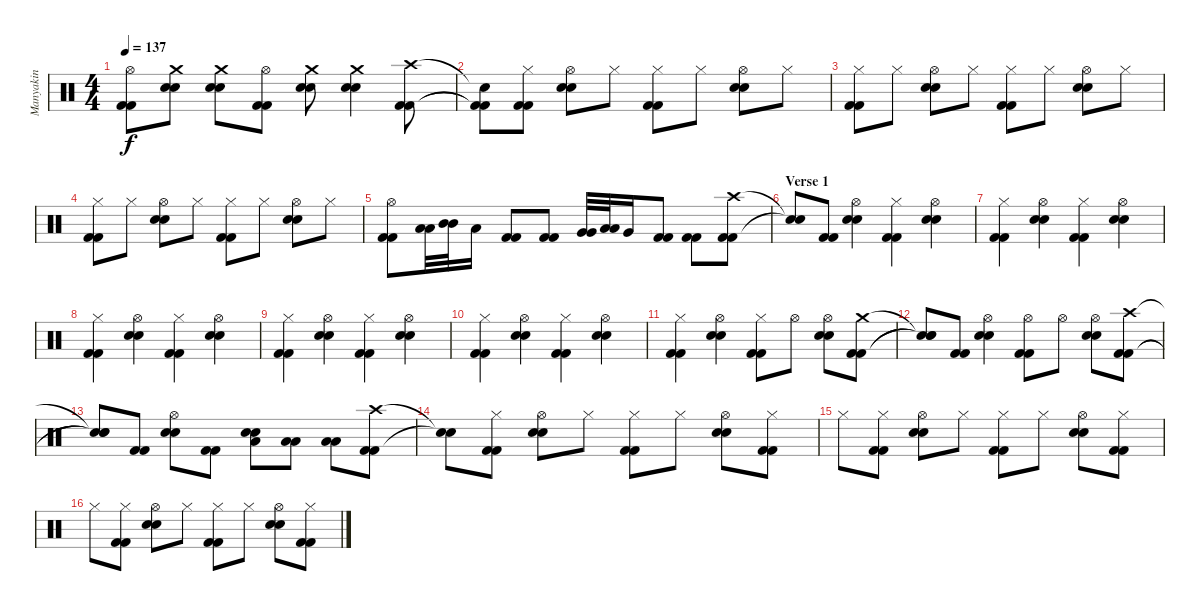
\track ("Manyakin" "Manyakin") {instrument percussion}
\staff {score}
\articulation defaults
\ts (4 4)
\tempo 137
\clef neutral
\ks c
("Hi-Hat (open)" "Kick (hit) 2" "Kick (hit) 2").8{dy f} ("Crash medium (hit)" "Electric Snare (hit)" "Electric Snare (hit)").8 ("Crash medium (hit)" "Electric Snare (hit)" "Electric Snare (hit)").8 ("Hi-Hat (open)" "Kick (hit) 2" "Kick (hit) 2").8 ("Crash medium (hit)" "Electric Snare (hit)" "Electric Snare (hit)").8 ("Crash medium (hit)" "Electric Snare (hit)" "Electric Snare (hit)").4 ("Crash high (hit)" "Kick (hit) 2" "Kick (hit) 2").8 |
("Snare (hit)"{t} "Kick (hit) 2"{t} "Kick (hit) 2"{t}).8 ("Hi-Hat (closed)" "Kick (hit) 2" "Kick (hit) 2").8 ("Hi-Hat (open)" "Electric Snare (hit)" "Electric Snare (hit)").8 "Hi-Hat (closed)".8 ("Hi-Hat (closed)" "Kick (hit) 2" "Kick (hit) 2").8 "Hi-Hat (closed)".8 ("Hi-Hat (open)" "Electric Snare (hit)" "Electric Snare (hit)").8 "Hi-Hat (closed)".8 |
("Hi-Hat (closed)" "Kick (hit) 2" "Kick (hit) 2").8 "Hi-Hat (closed)".8 ("Hi-Hat (open)" "Electric Snare (hit)" "Electric Snare (hit)").8 "Hi-Hat (closed)".8 ("Hi-Hat (closed)" "Kick (hit) 2" "Kick (hit) 2").8 "Hi-Hat (closed)".8 ("Hi-Hat (open)" "Electric Snare (hit)" "Electric Snare (hit)").8 "Hi-Hat (closed)".8 |
("Hi-Hat (closed)" "Kick (hit) 2" "Kick (hit) 2").8 "Hi-Hat (closed)".8 ("Hi-Hat (open)" "Electric Snare (hit)" "Electric Snare (hit)").8 "Hi-Hat (closed)".8 ("Hi-Hat (closed)" "Kick (hit) 2" "Kick (hit) 2").8 "Hi-Hat (closed)".8 ("Hi-Hat (open)" "Electric Snare (hit)" "Electric Snare (hit)").8 "Hi-Hat (closed)".8 |
("Hi-Hat (open)" "Kick (hit) 2" "Kick (hit) 2").8 ("Low Tom (hit)" "Low Tom (hit)").32 ("Mid Tom (hit)" "Mid Tom (hit)").32 "Low Tom (hit)".16 ("Kick (hit) 2" "Kick (hit) 2").8 ("Kick (hit) 2" "Kick (hit) 2").8 ("Very Low Tom (hit)" "Very Low Tom (hit)").32 ("Low Tom (hit)" "Low Tom (hit)").32 "Very Low Tom (hit)".16 ("Kick (hit) 2" "Kick (hit) 2").8 ("Kick (hit) 2" "Kick (hit) 2").8 ("Crash high (hit)" "Kick (hit) 2" "Kick (hit) 2").8 |
\section ("" "Verse 1")
("Snare (hit)"{t} "Snare (hit)"{t}).8 ("Kick (hit) 2" "Kick (hit) 2").8 ("Hi-Hat (open)" "Electric Snare (hit)" "Electric Snare (hit)").4 ("Hi-Hat (closed)" "Kick (hit) 2" "Kick (hit) 2").4 ("Hi-Hat (open)" "Electric Snare (hit)" "Electric Snare (hit)").4 |
("Hi-Hat (closed)" "Kick (hit) 2" "Kick (hit) 2").4 ("Hi-Hat (open)" "Electric Snare (hit)" "Electric Snare (hit)").4 ("Hi-Hat (closed)" "Kick (hit) 2" "Kick (hit) 2").4 ("Hi-Hat (open)" "Electric Snare (hit)" "Electric Snare (hit)").4 |
("Hi-Hat (closed)" "Kick (hit) 2" "Kick (hit) 2").4 ("Hi-Hat (open)" "Electric Snare (hit)" "Electric Snare (hit)").4 ("Hi-Hat (closed)" "Kick (hit) 2" "Kick (hit) 2").4 ("Hi-Hat (open)" "Electric Snare (hit)" "Electric Snare (hit)").4 |
("Hi-Hat (closed)" "Kick (hit) 2" "Kick (hit) 2").4 ("Hi-Hat (open)" "Electric Snare (hit)" "Electric Snare (hit)").4 ("Hi-Hat (closed)" "Kick (hit) 2" "Kick (hit) 2").4 ("Hi-Hat (open)" "Electric Snare (hit)" "Electric Snare (hit)").4 |
("Hi-Hat (closed)" "Kick (hit) 2" "Kick (hit) 2").4 ("Hi-Hat (open)" "Electric Snare (hit)" "Electric Snare (hit)").4 ("Hi-Hat (closed)" "Kick (hit) 2" "Kick (hit) 2").4 ("Hi-Hat (open)" "Electric Snare (hit)" "Electric Snare (hit)").4 |
("Hi-Hat (closed)" "Kick (hit) 2" "Kick (hit) 2").4 ("Hi-Hat (open)" "Electric Snare (hit)" "Electric Snare (hit)").4 ("Hi-Hat (closed)" "Kick (hit) 2" "Kick (hit) 2").8 "Hi-Hat (open)".8 ("Hi-Hat (open)" "Electric Snare (hit)" "Electric Snare (hit)").8 ("Crash medium (hit)" "Kick (hit) 2" "Kick (hit) 2").8 |
("Snare (hit)"{t} "Snare (hit)"{t} "Snare (hit)"{t}).8 ("Kick (hit) 2" "Kick (hit) 2").8 ("Hi-Hat (open)" "Electric Snare (hit)" "Electric Snare (hit)").4 ("Hi-Hat (open)" "Kick (hit) 2" "Kick (hit) 2").8 "Hi-Hat (open)".8 ("Hi-Hat (open)" "Electric Snare (hit)" "Electric Snare (hit)").8 ("Crash high (hit)" "Kick (hit) 2" "Kick (hit) 2").8 |
("Snare (hit)"{t} "Snare (hit)"{t} "Snare (hit)"{t}).8 ("Kick (hit) 2" "Kick (hit) 2").8 ("Hi-Hat (open)" "Electric Snare (hit)" "Electric Snare (hit)").8 ("Kick (hit) 2" "Kick (hit) 2").8 ("Electric Snare (hit)" "Electric Snare (hit)" "Low Tom (hit)").8 ("Low Tom (hit)" "Low Tom (hit)").8 ("Low Tom (hit)" "Low Tom (hit)").8 ("Crash high (hit)" "Kick (hit) 2" "Kick (hit) 2").8 |
("Snare (hit)"{t} "Snare (hit)"{t}).8 ("Hi-Hat (closed)" "Kick (hit) 2" "Kick (hit) 2").8 ("Hi-Hat (open)" "Electric Snare (hit)" "Electric Snare (hit)").8 "Hi-Hat (closed)".8 ("Hi-Hat (closed)" "Kick (hit) 2" "Kick (hit) 2").8 "Hi-Hat (closed)".8 ("Hi-Hat (open)" "Electric Snare (hit)" "Electric Snare (hit)").8 ("Hi-Hat (closed)" "Kick (hit) 2" "Kick (hit) 2").8 |
"Hi-Hat (closed)".8 ("Hi-Hat (closed)" "Kick (hit) 2" "Kick (hit) 2").8 ("Hi-Hat (open)" "Electric Snare (hit)" "Electric Snare (hit)").8 "Hi-Hat (closed)".8 ("Hi-Hat (closed)" "Kick (hit) 2" "Kick (hit) 2").8 "Hi-Hat (closed)".8 ("Hi-Hat (open)" "Electric Snare (hit)" "Electric Snare (hit)").8 ("Hi-Hat (closed)" "Kick (hit) 2" "Kick (hit) 2").8 |
"Hi-Hat (closed)".8 ("Hi-Hat (closed)" "Kick (hit) 2" "Kick (hit) 2").8 ("Hi-Hat (open)" "Electric Snare (hit)" "Electric Snare (hit)").8 "Hi-Hat (closed)".8 ("Hi-Hat (closed)" "Kick (hit) 2" "Kick (hit) 2").8 "Hi-Hat (closed)".8 ("Hi-Hat (open)" "Electric Snare (hit)" "Electric Snare (hit)").8 ("Hi-Hat (closed)" "Kick (hit) 2" "Kick (hit) 2").8
